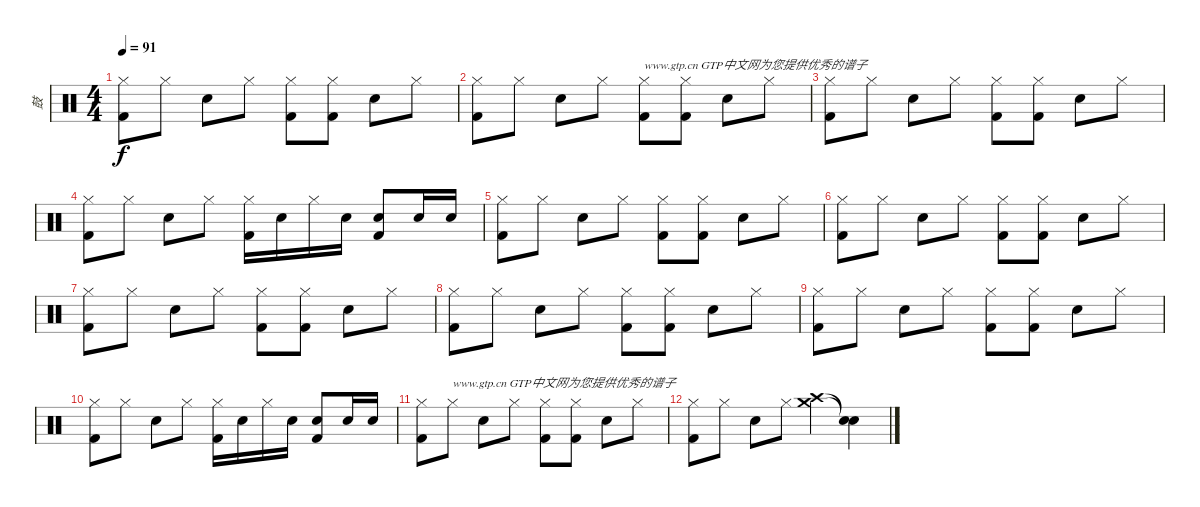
\track ("鼓" "鼓") {instrument percussion}
\staff {score}
\articulation defaults
\ts (4 4)
\tempo 91
\clef neutral
\ks c
("Hi-Hat (closed)" "Kick (hit) 2").8{dy f} "Hi-Hat (closed)".8 "Snare (hit) 2".8 "Hi-Hat (closed)".8 ("Hi-Hat (closed)" "Kick (hit) 2").8 ("Hi-Hat (closed)" "Kick (hit) 2").8 "Snare (hit) 2".8 "Hi-Hat (closed)".8 |
("Hi-Hat (closed)" "Kick (hit) 2").8 "Hi-Hat (closed)".8 "Snare (hit) 2".8 "Hi-Hat (closed)".8 ("Hi-Hat (closed)" "Kick (hit) 2").8{txt "www.gtp.cn GTP中文网为您提供优秀的谱子"} ("Hi-Hat (closed)" "Kick (hit) 2").8 "Snare (hit) 2".8 "Hi-Hat (closed)".8 |
("Hi-Hat (closed)" "Kick (hit) 2").8 "Hi-Hat (closed)".8 "Snare (hit) 2".8 "Hi-Hat (closed)".8 ("Hi-Hat (closed)" "Kick (hit) 2").8 ("Hi-Hat (closed)" "Kick (hit) 2").8 "Snare (hit) 2".8 "Hi-Hat (closed)".8 |
("Hi-Hat (closed)" "Kick (hit) 2").8 "Hi-Hat (closed)".8 "Snare (hit) 2".8 "Hi-Hat (closed)".8 ("Hi-Hat (closed)" "Kick (hit) 2").16 "Snare (hit) 2".16 "Hi-Hat (closed)".16 "Snare (hit) 2".16 ("Snare (hit) 2" "Kick (hit) 2").8 "Snare (hit) 2".16 "Snare (hit) 2".16 |
("Hi-Hat (closed)" "Kick (hit) 2").8 "Hi-Hat (closed)".8 "Snare (hit) 2".8 "Hi-Hat (closed)".8 ("Hi-Hat (closed)" "Kick (hit) 2").8 ("Hi-Hat (closed)" "Kick (hit) 2").8 "Snare (hit) 2".8 "Hi-Hat (closed)".8 |
("Hi-Hat (closed)" "Kick (hit) 2").8 "Hi-Hat (closed)".8 "Snare (hit) 2".8 "Hi-Hat (closed)".8 ("Hi-Hat (closed)" "Kick (hit) 2").8 ("Hi-Hat (closed)" "Kick (hit) 2").8 "Snare (hit) 2".8 "Hi-Hat (closed)".8 |
("Hi-Hat (closed)" "Kick (hit) 2").8 "Hi-Hat (closed)".8 "Snare (hit) 2".8 "Hi-Hat (closed)".8 ("Hi-Hat (closed)" "Kick (hit) 2").8 ("Hi-Hat (closed)" "Kick (hit) 2").8 "Snare (hit) 2".8 "Hi-Hat (closed)".8 |
("Hi-Hat (closed)" "Kick (hit) 2").8 "Hi-Hat (closed)".8 "Snare (hit) 2".8 "Hi-Hat (closed)".8 ("Hi-Hat (closed)" "Kick (hit) 2").8 ("Hi-Hat (closed)" "Kick (hit) 2").8 "Snare (hit) 2".8 "Hi-Hat (closed)".8 |
("Hi-Hat (closed)" "Kick (hit) 2").8 "Hi-Hat (closed)".8 "Snare (hit) 2".8 "Hi-Hat (closed)".8 ("Hi-Hat (closed)" "Kick (hit) 2").8 ("Hi-Hat (closed)" "Kick (hit) 2").8 "Snare (hit) 2".8 "Hi-Hat (closed)".8 |
("Hi-Hat (closed)" "Kick (hit) 2").8 "Hi-Hat (closed)".8 "Snare (hit) 2".8 "Hi-Hat (closed)".8 ("Hi-Hat (closed)" "Kick (hit) 2").16 "Snare (hit) 2".16 "Hi-Hat (closed)".16 "Snare (hit) 2".16 ("Snare (hit) 2" "Kick (hit) 2").8 "Snare (hit) 2".16 "Snare (hit) 2".16 |
("Hi-Hat (closed)" "Kick (hit) 2").8 "Hi-Hat (closed)".8{txt "www.gtp.cn GTP中文网为您提供优秀的谱子"} "Snare (hit) 2".8 "Hi-Hat (closed)".8 ("Hi-Hat (closed)" "Kick (hit) 2").8 ("Hi-Hat (closed)" "Kick (hit) 2").8 "Snare (hit) 2".8 "Hi-Hat (closed)".8 |
("Hi-Hat (closed)" "Kick (hit) 2").8 "Hi-Hat (closed)".8 "Snare (hit) 2".8 "Hi-Hat (closed)".8 ("Crash high (hit)" "Crash medium (hit)").4 ("Snare (hit)"{t} "Snare (hit)"{t}).4
